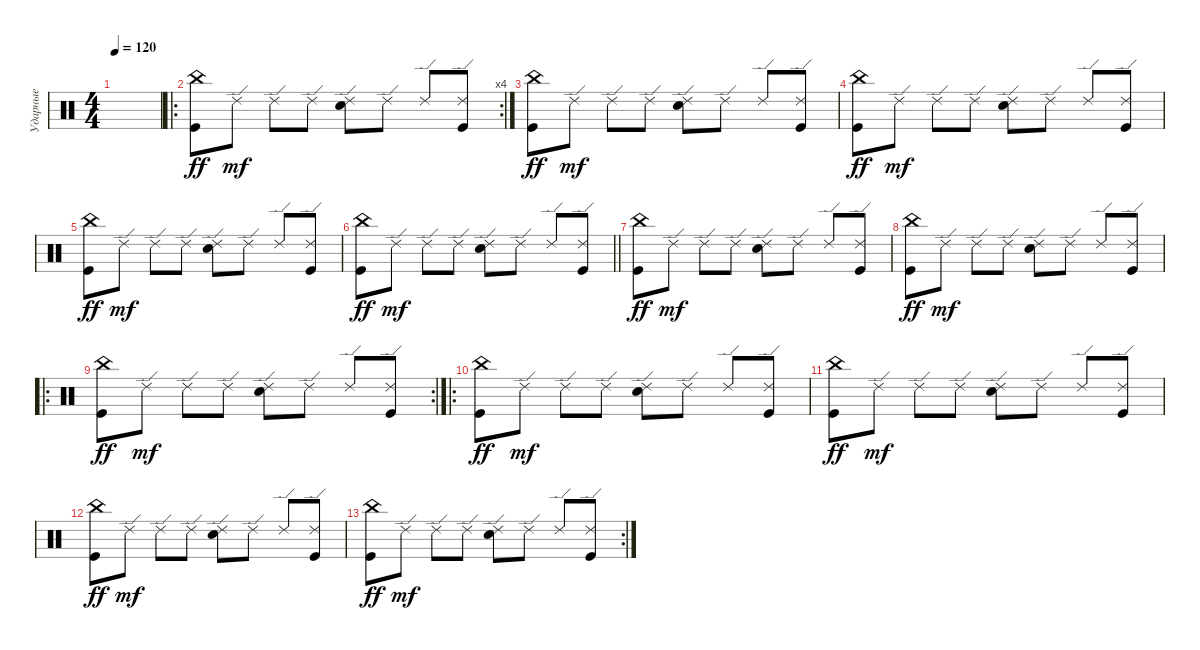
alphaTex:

\track ("Ударные" "Ударные") {instrument percussion}
\staff {score}
\articulation defaults
\ts (4 4)
\tempo 120
\clef neutral
\ks c
|
\ro
\rc 4
("Kick (hit)" "China (hit)").8{dy ff} "Ride (edge) 2".8{dy mf} "Ride (edge) 2".8 "Ride (edge) 2".8 ("Snare (hit) 2" "Ride (edge) 2").8 "Ride (edge) 2".8 "Ride (edge) 2".8 ("Kick (hit)" "Ride (edge) 2").8 |
("Kick (hit)" "China (hit)").8{dy ff} "Ride (edge) 2".8{dy mf} "Ride (edge) 2".8 "Ride (edge) 2".8 ("Snare (hit) 2" "Ride (edge) 2").8 "Ride (edge) 2".8 "Ride (edge) 2".8 ("Kick (hit)" "Ride (edge) 2").8 |
("Kick (hit)" "China (hit)").8{dy ff} "Ride (edge) 2".8{dy mf} "Ride (edge) 2".8 "Ride (edge) 2".8 ("Snare (hit) 2" "Ride (edge) 2").8 "Ride (edge) 2".8 "Ride (edge) 2".8 ("Kick (hit)" "Ride (edge) 2").8 |
("Kick (hit)" "China (hit)").8{dy ff} "Ride (edge) 2".8{dy mf} "Ride (edge) 2".8 "Ride (edge) 2".8 ("Snare (hit) 2" "Ride (edge) 2").8 "Ride (edge) 2".8 "Ride (edge) 2".8 ("Kick (hit)" "Ride (edge) 2").8 |
\barLineRight lightlight
("Kick (hit)" "China (hit)").8{dy ff} "Ride (edge) 2".8{dy mf} "Ride (edge) 2".8 "Ride (edge) 2".8 ("Snare (hit) 2" "Ride (edge) 2").8 "Ride (edge) 2".8 "Ride (edge) 2".8 ("Kick (hit)" "Ride (edge) 2").8 |
("Kick (hit)" "China (hit)").8{dy ff} "Ride (edge) 2".8{dy mf} "Ride (edge) 2".8 "Ride (edge) 2".8 ("Snare (hit) 2" "Ride (edge) 2").8 "Ride (edge) 2".8 "Ride (edge) 2".8 ("Kick (hit)" "Ride (edge) 2").8 |
("Kick (hit)" "China (hit)").8{dy ff} "Ride (edge) 2".8{dy mf} "Ride (edge) 2".8 "Ride (edge) 2".8 ("Snare (hit) 2" "Ride (edge) 2").8 "Ride (edge) 2".8 "Ride (edge) 2".8 ("Kick (hit)" "Ride (edge) 2").8 |
\ro
\rc 2
("Kick (hit)" "China (hit)").8{dy ff} "Ride (edge) 2".8{dy mf} "Ride (edge) 2".8 "Ride (edge) 2".8 ("Snare (hit) 2" "Ride (edge) 2").8 "Ride (edge) 2".8 "Ride (edge) 2".8 ("Kick (hit)" "Ride (edge) 2").8 |
\ro
("Kick (hit)" "China (hit)").8{dy ff} "Ride (edge) 2".8{dy mf} "Ride (edge) 2".8 "Ride (edge) 2".8 ("Snare (hit) 2" "Ride (edge) 2").8 "Ride (edge) 2".8 "Ride (edge) 2".8 ("Kick (hit)" "Ride (edge) 2").8 |
("Kick (hit)" "China (hit)").8{dy ff} "Ride (edge) 2".8{dy mf} "Ride (edge) 2".8 "Ride (edge) 2".8 ("Snare (hit) 2" "Ride (edge) 2").8 "Ride (edge) 2".8 "Ride (edge) 2".8 ("Kick (hit)" "Ride (edge) 2").8 |
("Kick (hit)" "China (hit)").8{dy ff} "Ride (edge) 2".8{dy mf} "Ride (edge) 2".8 "Ride (edge) 2".8 ("Snare (hit) 2" "Ride (edge) 2").8 "Ride (edge) 2".8 "Ride (edge) 2".8 ("Kick (hit)" "Ride (edge) 2").8 |
\rc 2
("Kick (hit)" "China (hit)").8{dy ff} "Ride (edge) 2".8{dy mf} "Ride (edge) 2".8 "Ride (edge) 2".8 ("Snare (hit) 2" "Ride (edge) 2").8 "Ride (edge) 2".8 "Ride (edge) 2".8 ("Kick (hit)" "Ride (edge) 2").8
